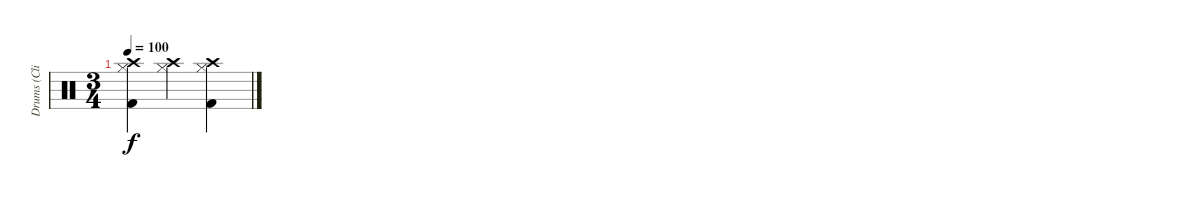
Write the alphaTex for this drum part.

\track ("Drums (Clive Bunker)" "Drums (Cli") {instrument percussion}
\staff {score}
\articulation defaults
\ts (3 4)
\tempo 100
\clef neutral
\ks c
("Crash high (hit)" "Hi-Hat (closed)" "Kick (hit) 2").4{dy f} ("Crash high (hit)" "Hi-Hat (closed)").4 ("Crash high (hit)" "Hi-Hat (closed)" "Kick (hit) 2").4
